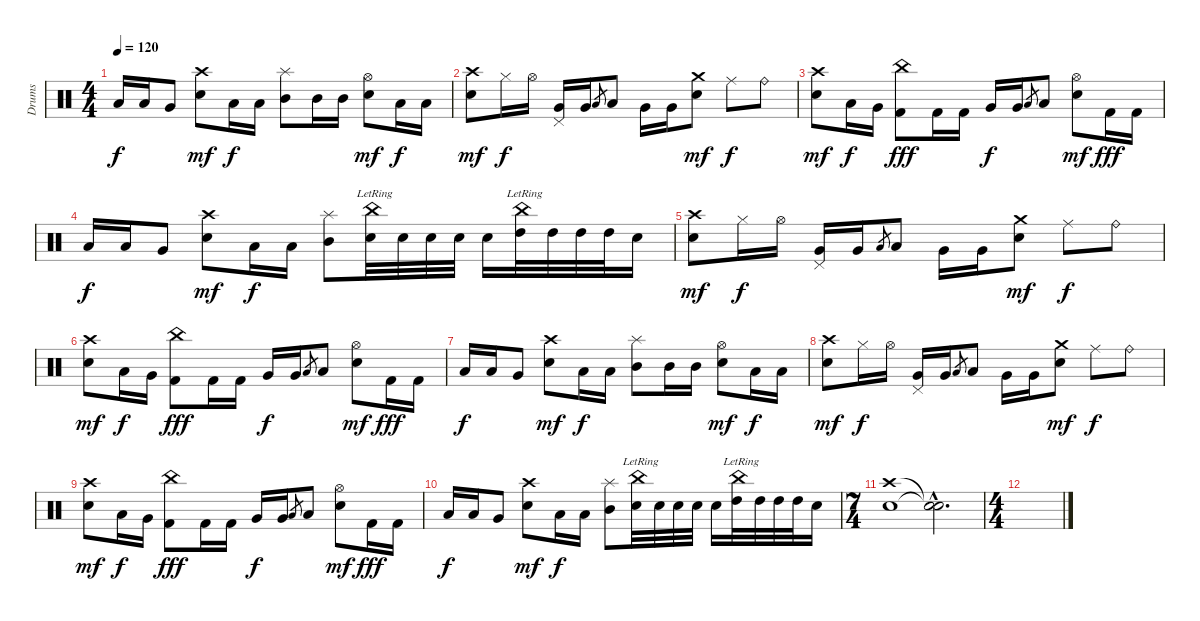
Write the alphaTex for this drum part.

\track ("Drums" "Drums") {instrument percussion}
\staff {score}
\articulation defaults
\ts (4 4)
\tempo 120
\clef neutral
\ks c "Low Tom (hit)".16{dy f} "Low Tom (hit)".16 "Very Low Tom (hit)".8
("Crash high (hit)" "Electric Snare (hit)").8{dy mf} "Low Tom (hit)".16{dy f} "Low Tom (hit)".16 ("Splash (hit)" "Mid Tom (hit)").8 "Mid Tom (hit)".16 "Mid Tom (hit)".16 ("Hi-Hat (open)" "Electric Snare (hit)").8{dy mf} "Low Tom (hit)".16{dy f} "Low Tom (hit)".16 |
("Crash high (hit)" "Electric Snare (hit)").8{dy mf} "Hi-Hat (closed)".16{dy f} "Hi-Hat (open)".16 ("Pedal Hi-Hat (hit)" "Very Low Tom (hit)").16 "Very Low Tom (hit)".16 "Low Tom (hit)".8{gr} "Low Tom (hit)".8 "Very Low Tom (hit)".16 "Very Low Tom (hit)".16 ("Crash medium (hit)" "Electric Snare (hit)").8{dy mf} "Ride (middle)".8{dy f} "Ride (bell)".8 |
("Crash high (hit)" "Electric Snare (hit)").8{dy mf} "Low Tom (hit)".16{dy f} "Very Low Tom (hit)".16 ("China (hit)" "Kick (hit) 2").8{dy fff} "Kick (hit) 2".16 "Kick (hit) 2".16 "Very Low Tom (hit)".16{dy f} "Very Low Tom (hit)".16 "Low Tom (hit)".8{gr} "Low Tom (hit)".8 ("Hi-Hat (open)" "Electric Snare (hit)").8{dy mf} "Kick (hit) 2".16{dy fff} "Kick (hit) 2".16 |
"Low Tom (hit)".16{dy f} "Low Tom (hit)".16 "Very Low Tom (hit)".8 ("Crash high (hit)" "Electric Snare (hit)").8{dy mf} "Low Tom (hit)".16{dy f} "Low Tom (hit)".16 ("Splash (hit)" "Mid Tom (hit)").8 ("China (hit)"{lr} "Electric Snare (hit)").32 "Electric Snare (hit)".32 "Electric Snare (hit)".32 "Electric Snare (hit)".32 "Electric Snare (hit)".16 ("China (hit)"{lr} "High Tom (hit)").32 "High Tom (hit)".32 "High Tom (hit)".32 "High Tom (hit)".32 "Electric Snare (hit)".16 |
("Crash high (hit)" "Electric Snare (hit)").8{dy mf} "Hi-Hat (closed)".16{dy f} "Hi-Hat (open)".16 ("Pedal Hi-Hat (hit)" "Very Low Tom (hit)").16 "Very Low Tom (hit)".16 "Low Tom (hit)".8{gr} "Low Tom (hit)".8 "Very Low Tom (hit)".16 "Very Low Tom (hit)".16 ("Crash medium (hit)" "Electric Snare (hit)").8{dy mf} "Ride (middle)".8{dy f} "Ride (bell)".8 |
("Crash high (hit)" "Electric Snare (hit)").8{dy mf} "Low Tom (hit)".16{dy f} "Very Low Tom (hit)".16 ("China (hit)" "Kick (hit) 2").8{dy fff} "Kick (hit) 2".16 "Kick (hit) 2".16 "Very Low Tom (hit)".16{dy f} "Very Low Tom (hit)".16 "Low Tom (hit)".8{gr} "Low Tom (hit)".8 ("Hi-Hat (open)" "Electric Snare (hit)").8{dy mf} "Kick (hit) 2".16{dy fff} "Kick (hit) 2".16 |
"Low Tom (hit)".16{dy f} "Low Tom (hit)".16 "Very Low Tom (hit)".8 ("Crash high (hit)" "Electric Snare (hit)").8{dy mf} "Low Tom (hit)".16{dy f} "Low Tom (hit)".16 ("Splash (hit)" "Mid Tom (hit)").8 "Mid Tom (hit)".16 "Mid Tom (hit)".16 ("Hi-Hat (open)" "Electric Snare (hit)").8{dy mf} "Low Tom (hit)".16{dy f} "Low Tom (hit)".16 |
("Crash high (hit)" "Electric Snare (hit)").8{dy mf} "Hi-Hat (closed)".16{dy f} "Hi-Hat (open)".16 ("Pedal Hi-Hat (hit)" "Very Low Tom (hit)").16 "Very Low Tom (hit)".16 "Low Tom (hit)".8{gr} "Low Tom (hit)".8 "Very Low Tom (hit)".16 "Very Low Tom (hit)".16 ("Crash medium (hit)" "Electric Snare (hit)").8{dy mf} "Ride (middle)".8{dy f} "Ride (bell)".8 |
("Crash high (hit)" "Electric Snare (hit)").8{dy mf} "Low Tom (hit)".16{dy f} "Very Low Tom (hit)".16 ("China (hit)" "Kick (hit) 2").8{dy fff} "Kick (hit) 2".16 "Kick (hit) 2".16 "Very Low Tom (hit)".16{dy f} "Very Low Tom (hit)".16 "Low Tom (hit)".8{gr} "Low Tom (hit)".8 ("Hi-Hat (open)" "Electric Snare (hit)").8{dy mf} "Kick (hit) 2".16{dy fff} "Kick (hit) 2".16 |
"Low Tom (hit)".16{dy f} "Low Tom (hit)".16 "Very Low Tom (hit)".8 ("Crash high (hit)" "Electric Snare (hit)").8{dy mf} "Low Tom (hit)".16{dy f} "Low Tom (hit)".16 ("Splash (hit)" "Mid Tom (hit)").8 ("China (hit)"{lr} "Electric Snare (hit)").32 "Electric Snare (hit)".32 "Electric Snare (hit)".32 "Electric Snare (hit)".32 "Electric Snare (hit)".16 ("China (hit)"{lr} "High Tom (hit)").32 "High Tom (hit)".32 "High Tom (hit)".32 "High Tom (hit)".32 "Electric Snare (hit)".16 |
\ts (7 4)
("Crash high (hit)" "Electric Snare (hit)").1 ("Snare (hit)"{hac t} "Snare (hit)"{hac t}).2{d} |
\ts (4 4)
